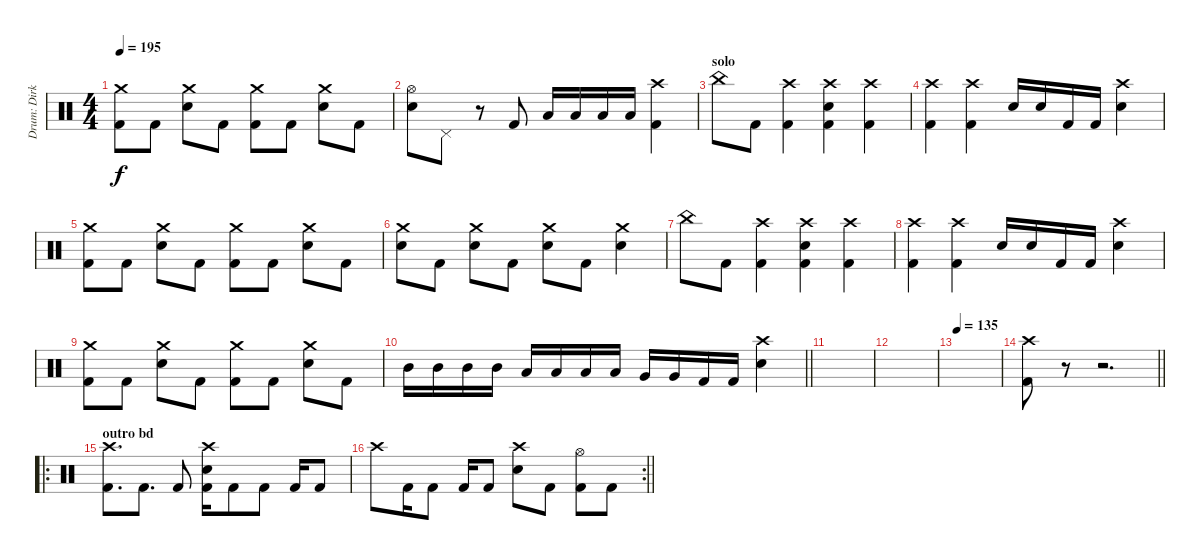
\track ("Drum: Dirk" "Drum: Dirk") {instrument percussion}
\staff {score}
\articulation defaults
\ts (4 4)
\tempo 195
\clef neutral
\ks c
("Crash medium (hit)" "Kick (hit) 2").8{dy f} "Kick (hit) 2".8 ("Crash medium (hit)" "Electric Snare (hit)").8 "Kick (hit) 2".8 ("Crash medium (hit)" "Kick (hit) 2").8 "Kick (hit) 2".8 ("Crash medium (hit)" "Electric Snare (hit)").8 "Kick (hit) 2".8 |
("Hi-Hat (open)" "Electric Snare (hit)").8 "Pedal Hi-Hat (hit)".8 r.8 "Kick (hit) 2".8 "Low Tom (hit)".16 "Low Tom (hit)".16 "Low Tom (hit)".16 "Low Tom (hit)".16 ("Crash high (hit)" "Kick (hit) 2").4 |
\section ("" "solo")
"China (hit)".8 "Kick (hit) 2".8 ("Crash high (hit)" "Kick (hit) 2").4 ("Crash high (hit)" "Electric Snare (hit)" "Kick (hit) 2").4 ("Crash high (hit)" "Kick (hit) 2").4 |
("Crash high (hit)" "Kick (hit) 2").4 ("Crash high (hit)" "Kick (hit) 2").4 "Electric Snare (hit)".16 "Electric Snare (hit)".16 "Kick (hit) 2".16 "Kick (hit) 2".16 ("Crash high (hit)" "Electric Snare (hit)").4 |
("Crash medium (hit)" "Kick (hit) 2").8 "Kick (hit) 2".8 ("Crash medium (hit)" "Electric Snare (hit)").8 "Kick (hit) 2".8 ("Crash medium (hit)" "Kick (hit) 2").8 "Kick (hit) 2".8 ("Crash medium (hit)" "Electric Snare (hit)").8 "Kick (hit) 2".8 |
("Crash medium (hit)" "Electric Snare (hit)").8 "Kick (hit) 2".8 ("Crash medium (hit)" "Electric Snare (hit)").8 "Kick (hit) 2".8 ("Crash medium (hit)" "Electric Snare (hit)").8 "Kick (hit) 2".8 ("Crash medium (hit)" "Electric Snare (hit)").4 |
"China (hit)".8 "Kick (hit) 2".8 ("Crash high (hit)" "Kick (hit) 2").4 ("Crash high (hit)" "Electric Snare (hit)" "Kick (hit) 2").4 ("Crash high (hit)" "Kick (hit) 2").4 |
("Crash high (hit)" "Kick (hit) 2").4 ("Crash high (hit)" "Kick (hit) 2").4 "Electric Snare (hit)".16 "Electric Snare (hit)".16 "Kick (hit) 2".16 "Kick (hit) 2".16 ("Crash high (hit)" "Electric Snare (hit)").4 |
("Crash medium (hit)" "Kick (hit) 2").8 "Kick (hit) 2".8 ("Crash medium (hit)" "Electric Snare (hit)").8 "Kick (hit) 2".8 ("Crash medium (hit)" "Kick (hit) 2").8 "Kick (hit) 2".8 ("Crash medium (hit)" "Electric Snare (hit)").8 "Kick (hit) 2".8 |
\barLineRight lightlight "Mid Tom (hit)".16 "Mid Tom (hit)".16 "Mid Tom (hit)".16 "Mid Tom (hit)".16 "Low Tom (hit)".16 "Low Tom (hit)".16 "Low Tom (hit)".16 "Low Tom (hit)".16 "Very Low Tom (hit)".16 "Very Low Tom (hit)".16 "Kick (hit) 2".16 "Kick (hit) 2".16
("Crash high (hit)" "Electric Snare (hit)").4 |
|
|
\tempo 135
|
\barLineRight lightlight
("Crash high (hit)" "Kick (hit) 2").8 r.8{volume 0} r.2{d} |
\ro
\section ("" "outro bd")
("Crash high (hit)" "Kick (hit) 2").8{d volume 12} "Kick (hit) 2".8{d} "Kick (hit) 2".8 ("Crash high (hit)" "Electric Snare (hit)" "Kick (hit) 2").16 "Kick (hit) 2".8 "Kick (hit) 2".8 "Kick (hit) 2".16 "Kick (hit) 2".8 |
\rc 2
\barLineRight lightlight "Crash high (hit)".8 "Kick (hit) 2".16 "Kick (hit) 2".8 "Kick (hit) 2".16 "Kick (hit) 2".8
("Crash high (hit)" "Electric Snare (hit)").8 "Kick (hit) 2".8 ("Hi-Hat (open)" "Kick (hit) 2").8 "Kick (hit) 2".8
